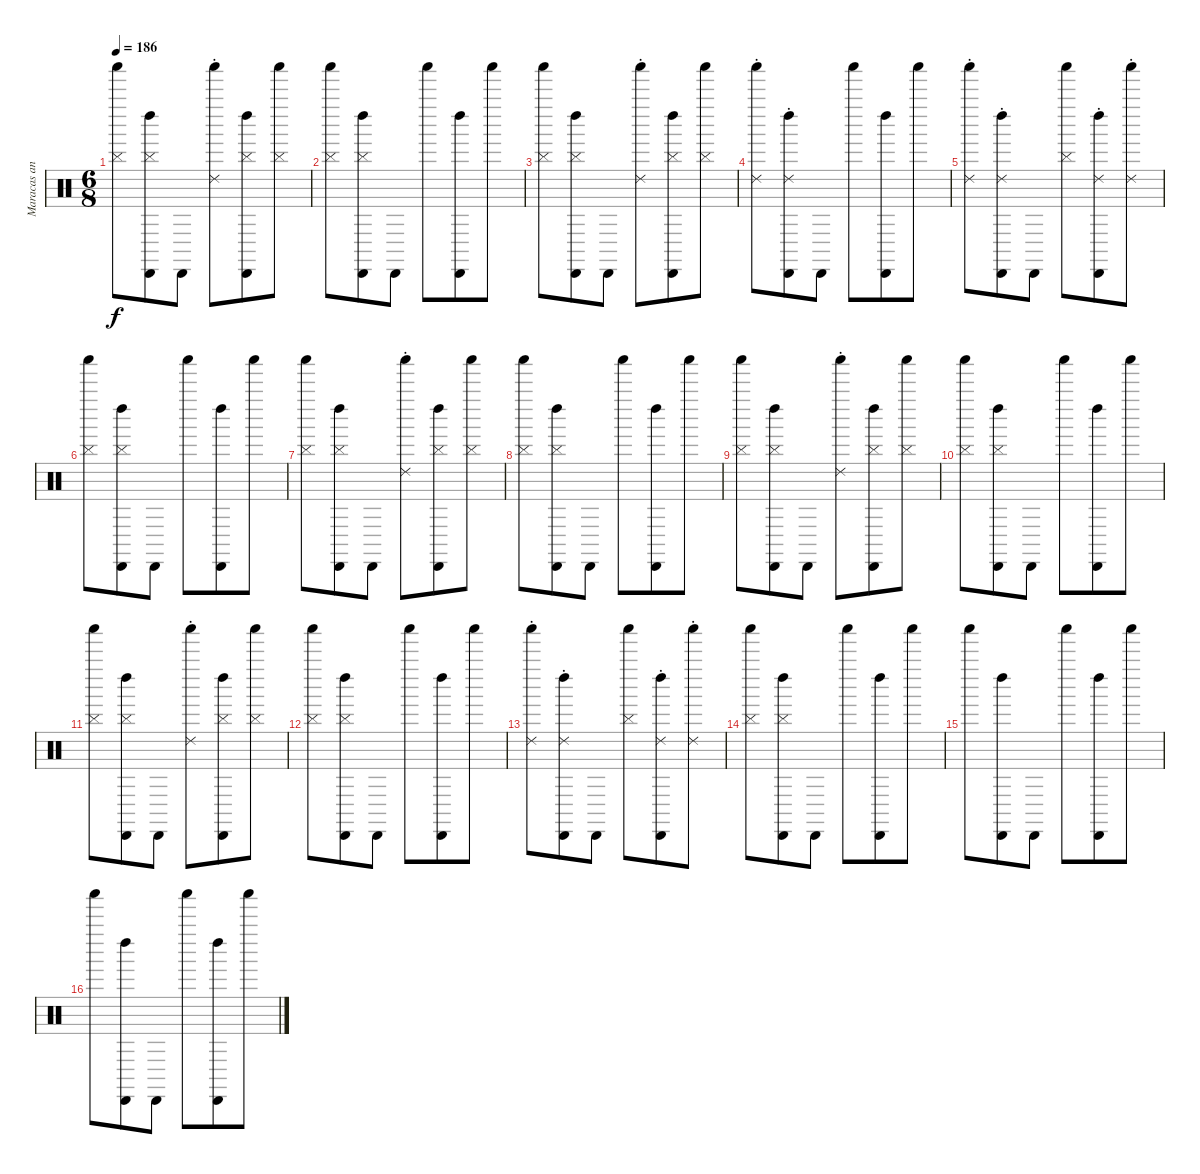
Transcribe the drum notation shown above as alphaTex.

\track ("Maracas and xtras" "Maracas an") {instrument percussion}
\staff {score}
\articulation defaults
\ts (6 8)
\tempo 186
\clef neutral
\ks c
("Shaker (hit)" "Cymbal (hit)").8{dy f} ("Left Maraca (hit)" "Cymbal (hit)" "Cabasa (hit)").8 "Cabasa (hit)".8 ("Shaker (hit)" "Ride (choke) 2").8 ("Left Maraca (hit)" "Cymbal (hit)" "Cabasa (hit)").8 ("Shaker (hit)" "Cymbal (hit)").8 |
("Shaker (hit)" "Cymbal (hit)").8 ("Left Maraca (hit)" "Cymbal (hit)" "Cabasa (hit)").8 "Cabasa (hit)".8 "Shaker (hit)".8 ("Left Maraca (hit)" "Cabasa (hit)").8 "Shaker (hit)".8 |
("Shaker (hit)" "Cymbal (hit)").8 ("Left Maraca (hit)" "Cymbal (hit)" "Cabasa (hit)").8 "Cabasa (hit)".8 ("Shaker (hit)" "Ride (choke) 2").8 ("Left Maraca (hit)" "Cymbal (hit)" "Cabasa (hit)").8 ("Shaker (hit)" "Cymbal (hit)").8 |
("Shaker (hit)" "Ride (choke) 2").8 ("Left Maraca (hit)" "Ride (choke) 2" "Cabasa (hit)").8 "Cabasa (hit)".8 "Shaker (hit)".8 ("Left Maraca (hit)" "Cabasa (hit)").8 "Shaker (hit)".8 |
("Shaker (hit)" "Ride (choke) 2").8 ("Left Maraca (hit)" "Ride (choke) 2" "Cabasa (hit)").8 "Cabasa (hit)".8 ("Shaker (hit)" "Cymbal (hit)").8 ("Left Maraca (hit)" "Ride (choke) 2" "Cabasa (hit)").8 ("Shaker (hit)" "Ride (choke) 2").8 |
("Shaker (hit)" "Cymbal (hit)").8 ("Left Maraca (hit)" "Cymbal (hit)" "Cabasa (hit)").8 "Cabasa (hit)".8 "Shaker (hit)".8 ("Left Maraca (hit)" "Cabasa (hit)").8 "Shaker (hit)".8 |
("Shaker (hit)" "Cymbal (hit)").8 ("Left Maraca (hit)" "Cymbal (hit)" "Cabasa (hit)").8 "Cabasa (hit)".8 ("Shaker (hit)" "Ride (choke) 2").8 ("Left Maraca (hit)" "Cymbal (hit)" "Cabasa (hit)").8 ("Shaker (hit)" "Cymbal (hit)").8 |
("Shaker (hit)" "Cymbal (hit)").8 ("Left Maraca (hit)" "Cymbal (hit)" "Cabasa (hit)").8 "Cabasa (hit)".8 "Shaker (hit)".8 ("Left Maraca (hit)" "Cabasa (hit)").8 "Shaker (hit)".8 |
("Shaker (hit)" "Cymbal (hit)").8 ("Left Maraca (hit)" "Cymbal (hit)" "Cabasa (hit)").8 "Cabasa (hit)".8 ("Shaker (hit)" "Ride (choke) 2").8 ("Left Maraca (hit)" "Cymbal (hit)" "Cabasa (hit)").8 ("Shaker (hit)" "Cymbal (hit)").8 |
("Shaker (hit)" "Cymbal (hit)").8 ("Left Maraca (hit)" "Cymbal (hit)" "Cabasa (hit)").8 "Cabasa (hit)".8 "Shaker (hit)".8 ("Left Maraca (hit)" "Cabasa (hit)").8 "Shaker (hit)".8 |
("Shaker (hit)" "Cymbal (hit)").8 ("Left Maraca (hit)" "Cymbal (hit)" "Cabasa (hit)").8 "Cabasa (hit)".8 ("Shaker (hit)" "Ride (choke) 2").8 ("Left Maraca (hit)" "Cymbal (hit)" "Cabasa (hit)").8 ("Shaker (hit)" "Cymbal (hit)").8 |
("Shaker (hit)" "Cymbal (hit)").8 ("Left Maraca (hit)" "Cymbal (hit)" "Cabasa (hit)").8 "Cabasa (hit)".8 "Shaker (hit)".8 ("Left Maraca (hit)" "Cabasa (hit)").8 "Shaker (hit)".8 |
("Shaker (hit)" "Ride (choke) 2").8 ("Left Maraca (hit)" "Ride (choke) 2" "Cabasa (hit)").8 "Cabasa (hit)".8 ("Shaker (hit)" "Cymbal (hit)").8 ("Left Maraca (hit)" "Ride (choke) 2" "Cabasa (hit)").8 ("Shaker (hit)" "Ride (choke) 2").8 |
("Shaker (hit)" "Cymbal (hit)").8 ("Left Maraca (hit)" "Cymbal (hit)" "Cabasa (hit)").8 "Cabasa (hit)".8 "Shaker (hit)".8 ("Left Maraca (hit)" "Cabasa (hit)").8 "Shaker (hit)".8 |
"Shaker (hit)".8 ("Left Maraca (hit)" "Cabasa (hit)").8 "Cabasa (hit)".8 "Shaker (hit)".8 ("Left Maraca (hit)" "Cabasa (hit)").8 "Shaker (hit)".8 |
"Shaker (hit)".8 ("Left Maraca (hit)" "Cabasa (hit)").8 "Cabasa (hit)".8 "Shaker (hit)".8 ("Left Maraca (hit)" "Cabasa (hit)").8 "Shaker (hit)".8
